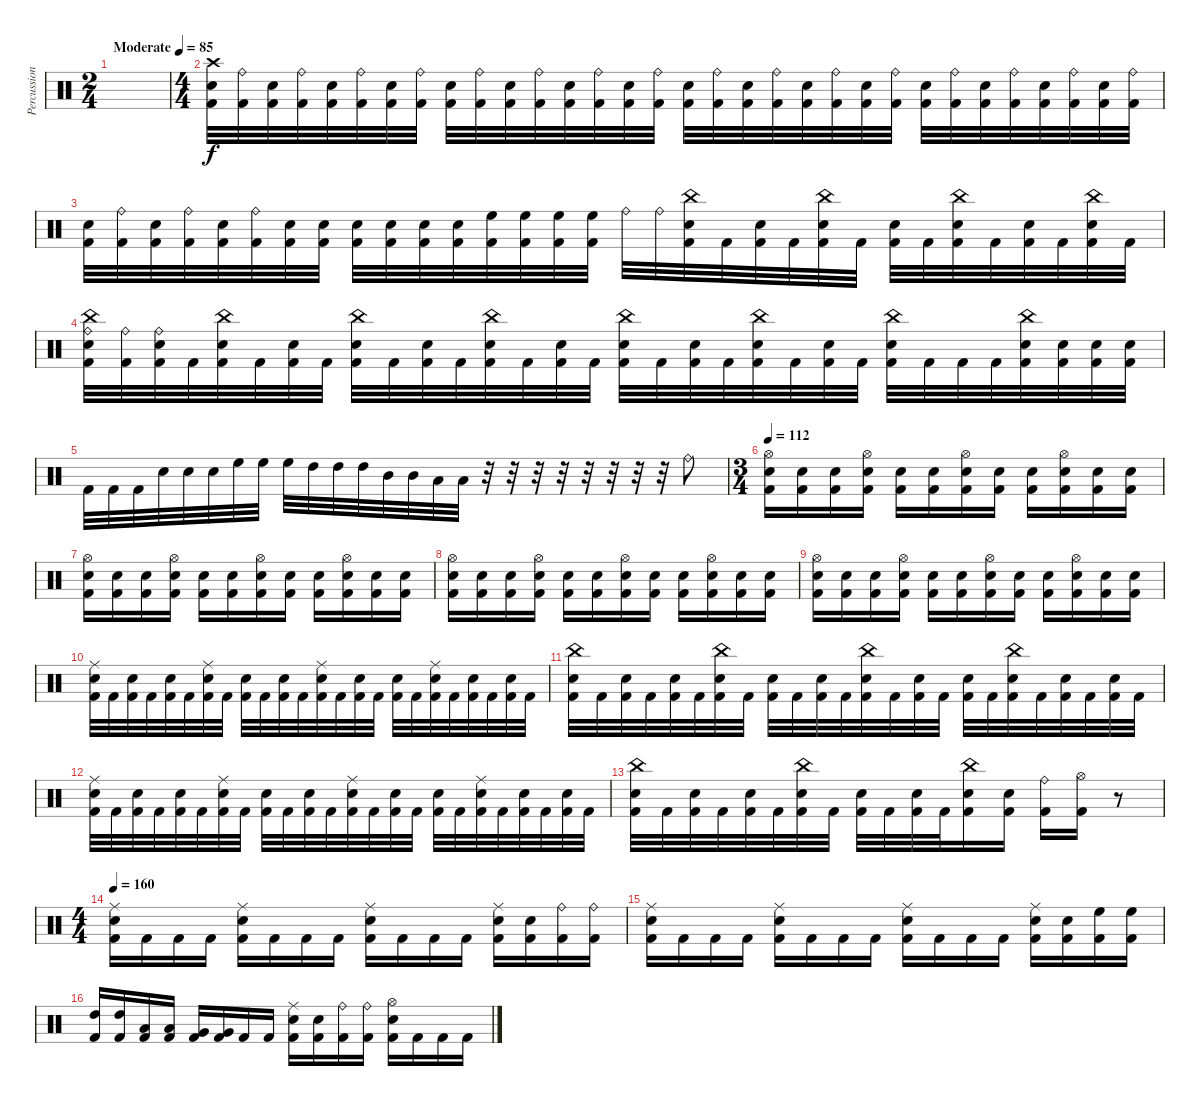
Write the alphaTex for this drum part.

\track ("Percussion" "Percussion") {instrument percussion}
\staff {score}
\articulation defaults
\ts (2 4)
\tempo (85 "Moderate")
\clef neutral
\ks c
|
\ts (4 4)
("Crash high (hit)" "Snare (hit) 2" "Kick (hit) 2").32 ("Ride (bell)" "Kick (hit) 2").32 ("Snare (hit) 2" "Kick (hit) 2").32 ("Ride (bell)" "Kick (hit) 2").32 ("Snare (hit) 2" "Kick (hit) 2").32 ("Ride (bell)" "Kick (hit) 2").32 ("Snare (hit) 2" "Kick (hit) 2").32 ("Ride (bell)" "Kick (hit) 2").32 ("Snare (hit) 2" "Kick (hit) 2").32 ("Ride (bell)" "Kick (hit) 2").32 ("Snare (hit) 2" "Kick (hit) 2").32 ("Ride (bell)" "Kick (hit) 2").32 ("Snare (hit) 2" "Kick (hit) 2").32 ("Ride (bell)" "Kick (hit) 2").32 ("Snare (hit) 2" "Kick (hit) 2").32 ("Ride (bell)" "Kick (hit) 2").32 ("Snare (hit) 2" "Kick (hit) 2").32 ("Ride (bell)" "Kick (hit) 2").32 ("Snare (hit) 2" "Kick (hit) 2").32 ("Ride (bell)" "Kick (hit) 2").32 ("Snare (hit) 2" "Kick (hit) 2").32 ("Ride (bell)" "Kick (hit) 2").32 ("Snare (hit) 2" "Kick (hit) 2").32 ("Ride (bell)" "Kick (hit) 2").32 ("Snare (hit) 2" "Kick (hit) 2").32 ("Ride (bell)" "Kick (hit) 2").32 ("Snare (hit) 2" "Kick (hit) 2").32 ("Ride (bell)" "Kick (hit) 2").32 ("Snare (hit) 2" "Kick (hit) 2").32 ("Ride (bell)" "Kick (hit) 2").32 ("Snare (hit) 2" "Kick (hit) 2").32 ("Ride (bell)" "Kick (hit) 2").32 |
("Snare (hit) 2" "Kick (hit) 2").32 ("Ride (bell)" "Kick (hit) 2").32 ("Snare (hit) 2" "Kick (hit) 2").32 ("Ride (bell)" "Kick (hit) 2").32 ("Snare (hit) 2" "Kick (hit) 2").32 ("Ride (bell)" "Kick (hit) 2").32 ("Snare (hit) 2" "Kick (hit) 2").32 ("Snare (hit) 2" "Kick (hit) 2").32 ("Snare (hit) 2" "Kick (hit) 2").32 ("Snare (hit) 2" "Kick (hit) 2").32 ("Snare (hit) 2" "Kick (hit) 2").32 ("Snare (hit) 2" "Kick (hit) 2").32 ("High Floor Tom (hit)" "Kick (hit) 2").32 ("High Floor Tom (hit)" "Kick (hit) 2").32 ("High Floor Tom (hit)" "Kick (hit) 2").32 ("High Floor Tom (hit)" "Kick (hit) 2").32 "Ride (bell)".32 "Ride (bell)".32 ("China (hit)" "Snare (hit) 2" "Kick (hit) 2").32 "Kick (hit) 2".32 ("Snare (hit) 2" "Kick (hit) 2").32 "Kick (hit) 2".32 ("China (hit)" "Snare (hit) 2" "Kick (hit) 2").32 "Kick (hit) 2".32 ("Snare (hit) 2" "Kick (hit) 2").32 "Kick (hit) 2".32 ("China (hit)" "Snare (hit) 2" "Kick (hit) 2").32 "Kick (hit) 2".32 ("Snare (hit) 2" "Kick (hit) 2").32 "Kick (hit) 2".32 ("China (hit)" "Snare (hit) 2" "Kick (hit) 2").32 "Kick (hit) 2".32 |
("China (hit)" "Ride (bell)" "Snare (hit) 2" "Kick (hit) 2").32 ("Ride (bell)" "Kick (hit) 2").32 ("Ride (bell)" "Snare (hit) 2" "Kick (hit) 2").32 "Kick (hit) 2".32 ("China (hit)" "Snare (hit) 2" "Kick (hit) 2").32 "Kick (hit) 2".32 ("Snare (hit) 2" "Kick (hit) 2").32 "Kick (hit) 2".32 ("China (hit)" "Snare (hit) 2" "Kick (hit) 2").32 "Kick (hit) 2".32 ("Snare (hit) 2" "Kick (hit) 2").32 "Kick (hit) 2".32 ("China (hit)" "Snare (hit) 2" "Kick (hit) 2").32 "Kick (hit) 2".32 ("Snare (hit) 2" "Kick (hit) 2").32 "Kick (hit) 2".32 ("China (hit)" "Snare (hit) 2" "Kick (hit) 2").32 "Kick (hit) 2".32 ("Snare (hit) 2" "Kick (hit) 2").32 "Kick (hit) 2".32 ("China (hit)" "Snare (hit) 2" "Kick (hit) 2").32 "Kick (hit) 2".32 ("Snare (hit) 2" "Kick (hit) 2").32 "Kick (hit) 2".32 ("China (hit)" "Snare (hit) 2" "Kick (hit) 2").32 "Kick (hit) 2".32 "Kick (hit) 2".32 "Kick (hit) 2".32 ("China (hit)" "Snare (hit) 2" "Kick (hit) 2").32 ("Snare (hit) 2" "Kick (hit) 2").32 ("Snare (hit) 2" "Kick (hit) 2").32 ("Snare (hit) 2" "Kick (hit) 2").32 |
"Kick (hit) 2".32 "Kick (hit) 2".32 "Kick (hit) 2".32 "Snare (hit) 2".32 "Snare (hit) 2".32 "Snare (hit) 2".32 "High Floor Tom (hit)".32 "High Floor Tom (hit)".32 "High Floor Tom (hit)".32 "High Tom (hit)".32 "High Tom (hit)".32 "High Tom (hit)".32 "Mid Tom (hit)".32 "Mid Tom (hit)".32 "Low Tom (hit)".32 "Low Tom (hit)".32 r.32 r.32 r.32 r.32 r.32 r.32 r.32 r.32 "Ride (bell)".8 |
\ts (3 4)
\tempo 112
("Hi-Hat (open)" "Snare (hit) 2" "Kick (hit) 2").16 ("Snare (hit) 2" "Kick (hit) 2").16 ("Snare (hit) 2" "Kick (hit) 2").16 ("Hi-Hat (open)" "Snare (hit) 2" "Kick (hit) 2").16 ("Snare (hit) 2" "Kick (hit) 2").16 ("Snare (hit) 2" "Kick (hit) 2").16 ("Hi-Hat (open)" "Snare (hit) 2" "Kick (hit) 2").16 ("Snare (hit) 2" "Kick (hit) 2").16 ("Snare (hit) 2" "Kick (hit) 2").16 ("Hi-Hat (open)" "Snare (hit) 2" "Kick (hit) 2").16 ("Snare (hit) 2" "Kick (hit) 2").16 ("Snare (hit) 2" "Kick (hit) 2").16 |
("Hi-Hat (open)" "Snare (hit) 2" "Kick (hit) 2").16 ("Snare (hit) 2" "Kick (hit) 2").16 ("Snare (hit) 2" "Kick (hit) 2").16 ("Hi-Hat (open)" "Snare (hit) 2" "Kick (hit) 2").16 ("Snare (hit) 2" "Kick (hit) 2").16 ("Snare (hit) 2" "Kick (hit) 2").16 ("Hi-Hat (open)" "Snare (hit) 2" "Kick (hit) 2").16 ("Snare (hit) 2" "Kick (hit) 2").16 ("Snare (hit) 2" "Kick (hit) 2").16 ("Hi-Hat (open)" "Snare (hit) 2" "Kick (hit) 2").16 ("Snare (hit) 2" "Kick (hit) 2").16 ("Snare (hit) 2" "Kick (hit) 2").16 |
("Hi-Hat (open)" "Snare (hit) 2" "Kick (hit) 2").16 ("Snare (hit) 2" "Kick (hit) 2").16 ("Snare (hit) 2" "Kick (hit) 2").16 ("Hi-Hat (open)" "Snare (hit) 2" "Kick (hit) 2").16 ("Snare (hit) 2" "Kick (hit) 2").16 ("Snare (hit) 2" "Kick (hit) 2").16 ("Hi-Hat (open)" "Snare (hit) 2" "Kick (hit) 2").16 ("Snare (hit) 2" "Kick (hit) 2").16 ("Snare (hit) 2" "Kick (hit) 2").16 ("Hi-Hat (open)" "Snare (hit) 2" "Kick (hit) 2").16 ("Snare (hit) 2" "Kick (hit) 2").16 ("Snare (hit) 2" "Kick (hit) 2").16 |
("Hi-Hat (open)" "Snare (hit) 2" "Kick (hit) 2").16 ("Snare (hit) 2" "Kick (hit) 2").16 ("Snare (hit) 2" "Kick (hit) 2").16 ("Hi-Hat (open)" "Snare (hit) 2" "Kick (hit) 2").16 ("Snare (hit) 2" "Kick (hit) 2").16 ("Snare (hit) 2" "Kick (hit) 2").16 ("Hi-Hat (open)" "Snare (hit) 2" "Kick (hit) 2").16 ("Snare (hit) 2" "Kick (hit) 2").16 ("Snare (hit) 2" "Kick (hit) 2").16 ("Hi-Hat (open)" "Snare (hit) 2" "Kick (hit) 2").16 ("Snare (hit) 2" "Kick (hit) 2").16 ("Snare (hit) 2" "Kick (hit) 2").16 |
("Ride (middle)" "Snare (hit) 2" "Kick (hit) 2").32 "Kick (hit) 2".32 ("Snare (hit) 2" "Kick (hit) 2").32 "Kick (hit) 2".32 ("Snare (hit) 2" "Kick (hit) 2").32 "Kick (hit) 2".32 ("Ride (middle)" "Snare (hit) 2" "Kick (hit) 2").32 "Kick (hit) 2".32 ("Snare (hit) 2" "Kick (hit) 2").32 "Kick (hit) 2".32 ("Snare (hit) 2" "Kick (hit) 2").32 "Kick (hit) 2".32 ("Ride (middle)" "Snare (hit) 2" "Kick (hit) 2").32 "Kick (hit) 2".32 ("Snare (hit) 2" "Kick (hit) 2").32 "Kick (hit) 2".32 ("Snare (hit) 2" "Kick (hit) 2").32 "Kick (hit) 2".32 ("Ride (middle)" "Snare (hit) 2" "Kick (hit) 2").32 "Kick (hit) 2".32 ("Snare (hit) 2" "Kick (hit) 2").32 "Kick (hit) 2".32 ("Snare (hit) 2" "Kick (hit) 2").32 "Kick (hit) 2".32 |
("China (hit)" "Snare (hit) 2" "Kick (hit) 2").32 "Kick (hit) 2".32 ("Snare (hit) 2" "Kick (hit) 2").32 "Kick (hit) 2".32 ("Snare (hit) 2" "Kick (hit) 2").32 "Kick (hit) 2".32 ("China (hit)" "Snare (hit) 2" "Kick (hit) 2").32 "Kick (hit) 2".32 ("Snare (hit) 2" "Kick (hit) 2").32 "Kick (hit) 2".32 ("Snare (hit) 2" "Kick (hit) 2").32 "Kick (hit) 2".32 ("China (hit)" "Snare (hit) 2" "Kick (hit) 2").32 "Kick (hit) 2".32 ("Snare (hit) 2" "Kick (hit) 2").32 "Kick (hit) 2".32 ("Snare (hit) 2" "Kick (hit) 2").32 "Kick (hit) 2".32 ("China (hit)" "Snare (hit) 2" "Kick (hit) 2").32 "Kick (hit) 2".32 ("Snare (hit) 2" "Kick (hit) 2").32 "Kick (hit) 2".32 ("Snare (hit) 2" "Kick (hit) 2").32 "Kick (hit) 2".32 |
("Ride (middle)" "Snare (hit) 2" "Kick (hit) 2").32 "Kick (hit) 2".32 ("Snare (hit) 2" "Kick (hit) 2").32 "Kick (hit) 2".32 ("Snare (hit) 2" "Kick (hit) 2").32 "Kick (hit) 2".32 ("Ride (middle)" "Snare (hit) 2" "Kick (hit) 2").32 "Kick (hit) 2".32 ("Snare (hit) 2" "Kick (hit) 2").32 "Kick (hit) 2".32 ("Snare (hit) 2" "Kick (hit) 2").32 "Kick (hit) 2".32 ("Ride (middle)" "Snare (hit) 2" "Kick (hit) 2").32 "Kick (hit) 2".32 ("Snare (hit) 2" "Kick (hit) 2").32 "Kick (hit) 2".32 ("Snare (hit) 2" "Kick (hit) 2").32 "Kick (hit) 2".32 ("Ride (middle)" "Snare (hit) 2" "Kick (hit) 2").32 "Kick (hit) 2".32 ("Snare (hit) 2" "Kick (hit) 2").32 "Kick (hit) 2".32 ("Snare (hit) 2" "Kick (hit) 2").32 "Kick (hit) 2".32 |
("China (hit)" "Snare (hit) 2" "Kick (hit) 2").32 "Kick (hit) 2".32 ("Snare (hit) 2" "Kick (hit) 2").32 "Kick (hit) 2".32 ("Snare (hit) 2" "Kick (hit) 2").32 "Kick (hit) 2".32 ("China (hit)" "Snare (hit) 2" "Kick (hit) 2").32 "Kick (hit) 2".32 ("Snare (hit) 2" "Kick (hit) 2").32 "Kick (hit) 2".32 ("Snare (hit) 2" "Kick (hit) 2").32 "Kick (hit) 2".32 ("China (hit)" "Snare (hit) 2" "Kick (hit) 2").16 ("Snare (hit) 2" "Kick (hit) 2").16 ("Ride (bell)" "Kick (hit) 2").16 ("Hi-Hat (open)" "Kick (hit) 2").16 r.8 |
\ts (4 4)
\tempo 160
("Ride (middle)" "Snare (hit) 2" "Kick (hit) 2").16 "Kick (hit) 2".16 "Kick (hit) 2".16 "Kick (hit) 2".16 ("Ride (middle)" "Snare (hit) 2" "Kick (hit) 2").16 "Kick (hit) 2".16 "Kick (hit) 2".16 "Kick (hit) 2".16 ("Ride (middle)" "Snare (hit) 2" "Kick (hit) 2").16 "Kick (hit) 2".16 "Kick (hit) 2".16 "Kick (hit) 2".16 ("Ride (middle)" "Snare (hit) 2" "Kick (hit) 2").16 ("Snare (hit) 2" "Kick (hit) 2").16 ("Ride (bell)" "Kick (hit) 2").16 ("Ride (bell)" "Kick (hit) 2").16 |
("Ride (middle)" "Snare (hit) 2" "Kick (hit) 2").16 "Kick (hit) 2".16 "Kick (hit) 2".16 "Kick (hit) 2".16 ("Ride (middle)" "Snare (hit) 2" "Kick (hit) 2").16 "Kick (hit) 2".16 "Kick (hit) 2".16 "Kick (hit) 2".16 ("Ride (middle)" "Snare (hit) 2" "Kick (hit) 2").16 "Kick (hit) 2".16 "Kick (hit) 2".16 "Kick (hit) 2".16 ("Ride (middle)" "Snare (hit) 2" "Kick (hit) 2").16 ("Snare (hit) 2" "Kick (hit) 2").16 ("High Floor Tom (hit)" "Kick (hit) 2").16 ("High Floor Tom (hit)" "Kick (hit) 2").16 |
("High Tom (hit)" "Kick (hit) 2").16 ("High Tom (hit)" "Kick (hit) 2").16 ("Low Tom (hit)" "Kick (hit) 2").16 ("Low Tom (hit)" "Kick (hit) 2").16 ("Very Low Tom (hit)" "Kick (hit) 2").16 ("Very Low Tom (hit)" "Kick (hit) 2").16 "Kick (hit) 2".16 "Kick (hit) 2".16 ("Ride (middle)" "Snare (hit) 2" "Kick (hit) 2").16 ("Snare (hit) 2" "Kick (hit) 2").16 ("Ride (bell)" "Kick (hit) 2").16 ("Ride (bell)" "Kick (hit) 2").16 ("Hi-Hat (open)" "Snare (hit) 2" "Kick (hit) 2").16 "Kick (hit) 2".16 "Kick (hit) 2".16 "Kick (hit) 2".16
